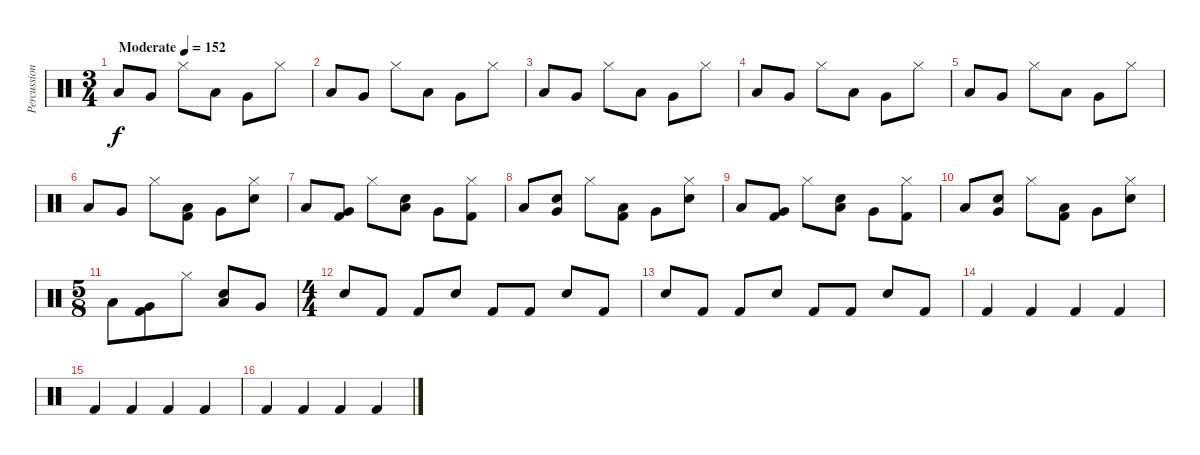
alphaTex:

\track ("Percussion" "Percussion") {instrument percussion}
\staff {score}
\articulation defaults
\ts (3 4)
\tempo (152 "Moderate")
\clef neutral
\ks c "Low Tom (hit)".8{dy f} "Very Low Tom (hit)".8 "Hi-Hat (closed)".8 "Low Tom (hit)".8 "Very Low Tom (hit)".8 "Hi-Hat (closed)".8
|
"Low Tom (hit)".8 "Very Low Tom (hit)".8 "Hi-Hat (closed)".8 "Low Tom (hit)".8 "Very Low Tom (hit)".8 "Hi-Hat (closed)".8 |
"Low Tom (hit)".8 "Very Low Tom (hit)".8 "Hi-Hat (closed)".8 "Low Tom (hit)".8 "Very Low Tom (hit)".8 "Hi-Hat (closed)".8 |
"Low Tom (hit)".8 "Very Low Tom (hit)".8 "Hi-Hat (closed)".8 "Low Tom (hit)".8 "Very Low Tom (hit)".8 "Hi-Hat (closed)".8 |
"Low Tom (hit)".8 "Very Low Tom (hit)".8 "Hi-Hat (closed)".8 "Low Tom (hit)".8 "Very Low Tom (hit)".8 "Hi-Hat (closed)".8 |
"Low Tom (hit)".8 "Very Low Tom (hit)".8 "Hi-Hat (closed)".8 ("Low Tom (hit)" "Kick (hit) 2").8 "Very Low Tom (hit)".8 ("Hi-Hat (closed)" "Snare (hit) 2").8 |
"Low Tom (hit)".8 ("Very Low Tom (hit)" "Kick (hit) 2").8 "Hi-Hat (closed)".8 ("Low Tom (hit)" "Snare (hit) 2").8 "Very Low Tom (hit)".8 ("Hi-Hat (closed)" "Kick (hit) 2").8 |
"Low Tom (hit)".8 ("Very Low Tom (hit)" "Snare (hit) 2").8 "Hi-Hat (closed)".8 ("Low Tom (hit)" "Kick (hit) 2").8 "Very Low Tom (hit)".8 ("Hi-Hat (closed)" "Snare (hit) 2").8 |
"Low Tom (hit)".8 ("Very Low Tom (hit)" "Kick (hit) 2").8 "Hi-Hat (closed)".8 ("Low Tom (hit)" "Snare (hit) 2").8 "Very Low Tom (hit)".8 ("Hi-Hat (closed)" "Kick (hit) 2").8 |
"Low Tom (hit)".8 ("Very Low Tom (hit)" "Snare (hit) 2").8 "Hi-Hat (closed)".8 ("Low Tom (hit)" "Kick (hit) 2").8 "Very Low Tom (hit)".8 ("Hi-Hat (closed)" "Snare (hit) 2").8 |
\ts (5 8)
"Low Tom (hit)".8 ("Very Low Tom (hit)" "Kick (hit) 2").8 "Hi-Hat (closed)".8 ("Low Tom (hit)" "Snare (hit) 2").8 "Very Low Tom (hit)".8 |
\ts (4 4)
"Snare (hit) 2".8 "Kick (hit) 2".8 "Kick (hit) 2".8 "Snare (hit) 2".8 "Kick (hit) 2".8 "Kick (hit) 2".8 "Snare (hit) 2".8 "Kick (hit) 2".8 |
"Snare (hit) 2".8 "Kick (hit) 2".8 "Kick (hit) 2".8 "Snare (hit) 2".8 "Kick (hit) 2".8 "Kick (hit) 2".8 "Snare (hit) 2".8 "Kick (hit) 2".8 |
"Kick (hit) 2".4 "Kick (hit) 2".4 "Kick (hit) 2".4 "Kick (hit) 2".4 |
"Kick (hit) 2".4 "Kick (hit) 2".4 "Kick (hit) 2".4 "Kick (hit) 2".4 |
"Kick (hit) 2".4 "Kick (hit) 2".4 "Kick (hit) 2".4 "Kick (hit) 2".4
